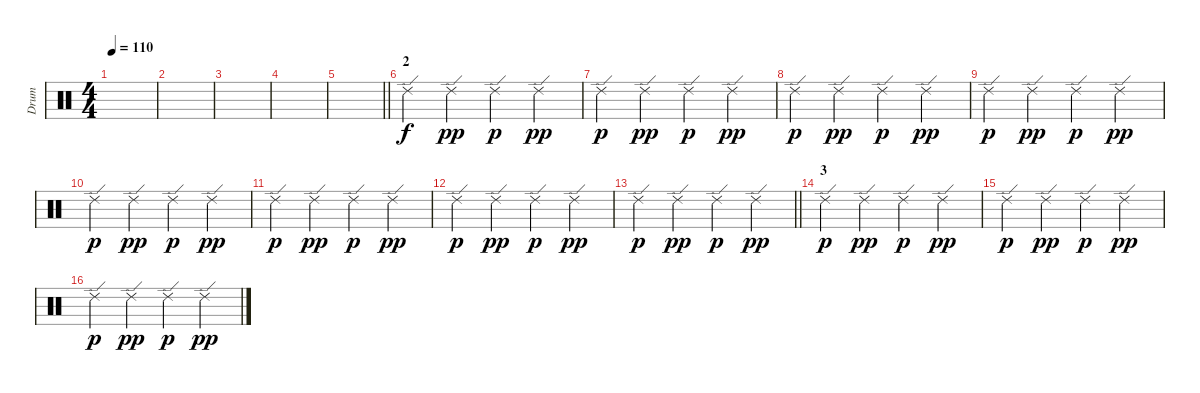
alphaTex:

\track ("Drum" "Drum") {instrument percussion}
\staff {score}
\articulation defaults
\ts (4 4)
\tempo 110
\clef neutral
\ks c
|
|
|
|
\barLineRight lightlight
|
\section ("" "2")
"Ride (edge) 2".4 "Ride (edge) 2".4{dy pp} "Ride (edge) 2".4{dy p} "Ride (edge) 2".4{dy pp} |
"Ride (edge) 2".4{dy p} "Ride (edge) 2".4{dy pp} "Ride (edge) 2".4{dy p} "Ride (edge) 2".4{dy pp} |
"Ride (edge) 2".4{dy p} "Ride (edge) 2".4{dy pp} "Ride (edge) 2".4{dy p} "Ride (edge) 2".4{dy pp} |
"Ride (edge) 2".4{dy p} "Ride (edge) 2".4{dy pp} "Ride (edge) 2".4{dy p} "Ride (edge) 2".4{dy pp} |
"Ride (edge) 2".4{dy p} "Ride (edge) 2".4{dy pp} "Ride (edge) 2".4{dy p} "Ride (edge) 2".4{dy pp} |
"Ride (edge) 2".4{dy p} "Ride (edge) 2".4{dy pp} "Ride (edge) 2".4{dy p} "Ride (edge) 2".4{dy pp} |
"Ride (edge) 2".4{dy p} "Ride (edge) 2".4{dy pp} "Ride (edge) 2".4{dy p} "Ride (edge) 2".4{dy pp} |
\barLineRight lightlight "Ride (edge) 2".4{dy p} "Ride (edge) 2".4{dy pp} "Ride (edge) 2".4{dy p} "Ride (edge) 2".4{dy pp}
|
\section ("" "3")
"Ride (edge) 2".4{dy p} "Ride (edge) 2".4{dy pp} "Ride (edge) 2".4{dy p} "Ride (edge) 2".4{dy pp} |
"Ride (edge) 2".4{dy p} "Ride (edge) 2".4{dy pp} "Ride (edge) 2".4{dy p} "Ride (edge) 2".4{dy pp} |
"Ride (edge) 2".4{dy p} "Ride (edge) 2".4{dy pp} "Ride (edge) 2".4{dy p} "Ride (edge) 2".4{dy pp}
